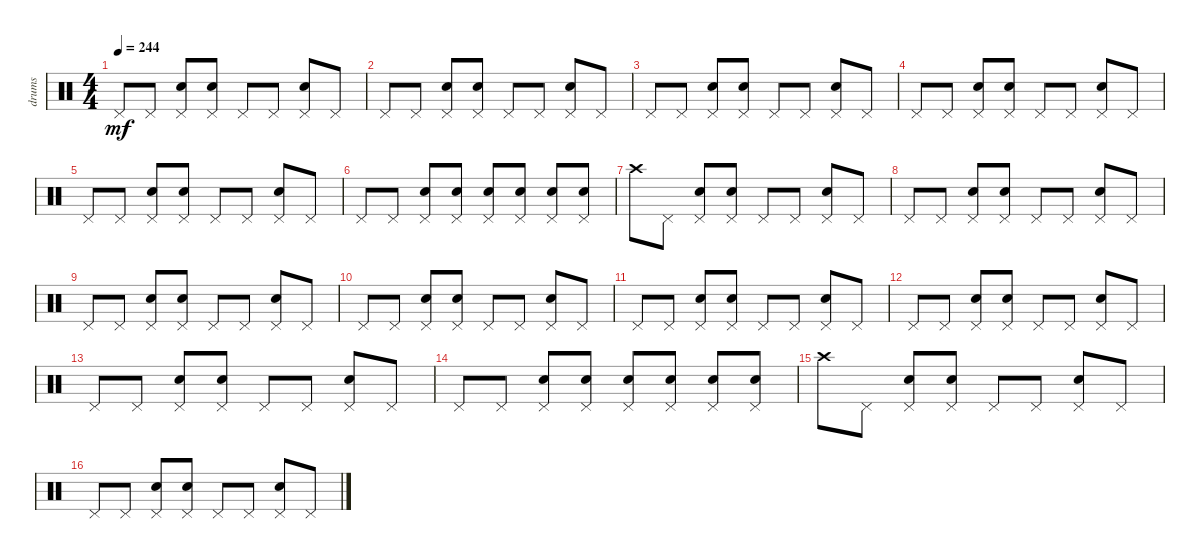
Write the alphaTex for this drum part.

\track ("drums" "drums") {instrument percussion}
\staff {score}
\articulation defaults
\ts (4 4)
\tempo 244
\clef neutral
\ks c "Pedal Hi-Hat (hit)".8{dy mf} "Pedal Hi-Hat (hit)".8
("Pedal Hi-Hat (hit)" "Snare (hit) 2").8 ("Pedal Hi-Hat (hit)" "Snare (hit) 2").8 "Pedal Hi-Hat (hit)".8 "Pedal Hi-Hat (hit)".8 ("Pedal Hi-Hat (hit)" "Snare (hit) 2").8 "Pedal Hi-Hat (hit)".8 |
"Pedal Hi-Hat (hit)".8 "Pedal Hi-Hat (hit)".8 ("Pedal Hi-Hat (hit)" "Snare (hit) 2").8 ("Pedal Hi-Hat (hit)" "Snare (hit) 2").8 "Pedal Hi-Hat (hit)".8 "Pedal Hi-Hat (hit)".8 ("Pedal Hi-Hat (hit)" "Snare (hit) 2").8 "Pedal Hi-Hat (hit)".8 |
"Pedal Hi-Hat (hit)".8 "Pedal Hi-Hat (hit)".8 ("Pedal Hi-Hat (hit)" "Snare (hit) 2").8 ("Pedal Hi-Hat (hit)" "Snare (hit) 2").8 "Pedal Hi-Hat (hit)".8 "Pedal Hi-Hat (hit)".8 ("Pedal Hi-Hat (hit)" "Snare (hit) 2").8 "Pedal Hi-Hat (hit)".8 |
"Pedal Hi-Hat (hit)".8 "Pedal Hi-Hat (hit)".8 ("Pedal Hi-Hat (hit)" "Snare (hit) 2").8 ("Pedal Hi-Hat (hit)" "Snare (hit) 2").8 "Pedal Hi-Hat (hit)".8 "Pedal Hi-Hat (hit)".8 ("Pedal Hi-Hat (hit)" "Snare (hit) 2").8 "Pedal Hi-Hat (hit)".8 |
"Pedal Hi-Hat (hit)".8 "Pedal Hi-Hat (hit)".8 ("Pedal Hi-Hat (hit)" "Snare (hit) 2").8 ("Pedal Hi-Hat (hit)" "Snare (hit) 2").8 "Pedal Hi-Hat (hit)".8 "Pedal Hi-Hat (hit)".8 ("Pedal Hi-Hat (hit)" "Snare (hit) 2").8 "Pedal Hi-Hat (hit)".8 |
"Pedal Hi-Hat (hit)".8 "Pedal Hi-Hat (hit)".8 ("Pedal Hi-Hat (hit)" "Snare (hit) 2").8 ("Pedal Hi-Hat (hit)" "Snare (hit) 2").8 ("Pedal Hi-Hat (hit)" "Snare (hit) 2").8 ("Pedal Hi-Hat (hit)" "Snare (hit) 2").8 ("Pedal Hi-Hat (hit)" "Snare (hit) 2").8 ("Pedal Hi-Hat (hit)" "Snare (hit) 2").8 |
"Crash high (hit)".8 "Pedal Hi-Hat (hit)".8 ("Pedal Hi-Hat (hit)" "Snare (hit) 2").8 ("Pedal Hi-Hat (hit)" "Snare (hit) 2").8 "Pedal Hi-Hat (hit)".8 "Pedal Hi-Hat (hit)".8 ("Pedal Hi-Hat (hit)" "Snare (hit) 2").8 "Pedal Hi-Hat (hit)".8 |
"Pedal Hi-Hat (hit)".8 "Pedal Hi-Hat (hit)".8 ("Pedal Hi-Hat (hit)" "Snare (hit) 2").8 ("Pedal Hi-Hat (hit)" "Snare (hit) 2").8 "Pedal Hi-Hat (hit)".8 "Pedal Hi-Hat (hit)".8 ("Pedal Hi-Hat (hit)" "Snare (hit) 2").8 "Pedal Hi-Hat (hit)".8 |
"Pedal Hi-Hat (hit)".8 "Pedal Hi-Hat (hit)".8 ("Pedal Hi-Hat (hit)" "Snare (hit) 2").8 ("Pedal Hi-Hat (hit)" "Snare (hit) 2").8 "Pedal Hi-Hat (hit)".8 "Pedal Hi-Hat (hit)".8 ("Pedal Hi-Hat (hit)" "Snare (hit) 2").8 "Pedal Hi-Hat (hit)".8 |
"Pedal Hi-Hat (hit)".8 "Pedal Hi-Hat (hit)".8 ("Pedal Hi-Hat (hit)" "Snare (hit) 2").8 ("Pedal Hi-Hat (hit)" "Snare (hit) 2").8 "Pedal Hi-Hat (hit)".8 "Pedal Hi-Hat (hit)".8 ("Pedal Hi-Hat (hit)" "Snare (hit) 2").8 "Pedal Hi-Hat (hit)".8 |
"Pedal Hi-Hat (hit)".8 "Pedal Hi-Hat (hit)".8 ("Pedal Hi-Hat (hit)" "Snare (hit) 2").8 ("Pedal Hi-Hat (hit)" "Snare (hit) 2").8 "Pedal Hi-Hat (hit)".8 "Pedal Hi-Hat (hit)".8 ("Pedal Hi-Hat (hit)" "Snare (hit) 2").8 "Pedal Hi-Hat (hit)".8 |
"Pedal Hi-Hat (hit)".8 "Pedal Hi-Hat (hit)".8 ("Pedal Hi-Hat (hit)" "Snare (hit) 2").8 ("Pedal Hi-Hat (hit)" "Snare (hit) 2").8 "Pedal Hi-Hat (hit)".8 "Pedal Hi-Hat (hit)".8 ("Pedal Hi-Hat (hit)" "Snare (hit) 2").8 "Pedal Hi-Hat (hit)".8 |
"Pedal Hi-Hat (hit)".8 "Pedal Hi-Hat (hit)".8 ("Pedal Hi-Hat (hit)" "Snare (hit) 2").8 ("Pedal Hi-Hat (hit)" "Snare (hit) 2").8 "Pedal Hi-Hat (hit)".8 "Pedal Hi-Hat (hit)".8 ("Pedal Hi-Hat (hit)" "Snare (hit) 2").8 "Pedal Hi-Hat (hit)".8 |
"Pedal Hi-Hat (hit)".8 "Pedal Hi-Hat (hit)".8 ("Pedal Hi-Hat (hit)" "Snare (hit) 2").8 ("Pedal Hi-Hat (hit)" "Snare (hit) 2").8 ("Pedal Hi-Hat (hit)" "Snare (hit) 2").8 ("Pedal Hi-Hat (hit)" "Snare (hit) 2").8 ("Pedal Hi-Hat (hit)" "Snare (hit) 2").8 ("Pedal Hi-Hat (hit)" "Snare (hit) 2").8 |
"Crash high (hit)".8 "Pedal Hi-Hat (hit)".8 ("Pedal Hi-Hat (hit)" "Snare (hit) 2").8 ("Pedal Hi-Hat (hit)" "Snare (hit) 2").8 "Pedal Hi-Hat (hit)".8 "Pedal Hi-Hat (hit)".8 ("Pedal Hi-Hat (hit)" "Snare (hit) 2").8 "Pedal Hi-Hat (hit)".8 |
"Pedal Hi-Hat (hit)".8 "Pedal Hi-Hat (hit)".8 ("Pedal Hi-Hat (hit)" "Snare (hit) 2").8 ("Pedal Hi-Hat (hit)" "Snare (hit) 2").8 "Pedal Hi-Hat (hit)".8 "Pedal Hi-Hat (hit)".8 ("Pedal Hi-Hat (hit)" "Snare (hit) 2").8 "Pedal Hi-Hat (hit)".8
